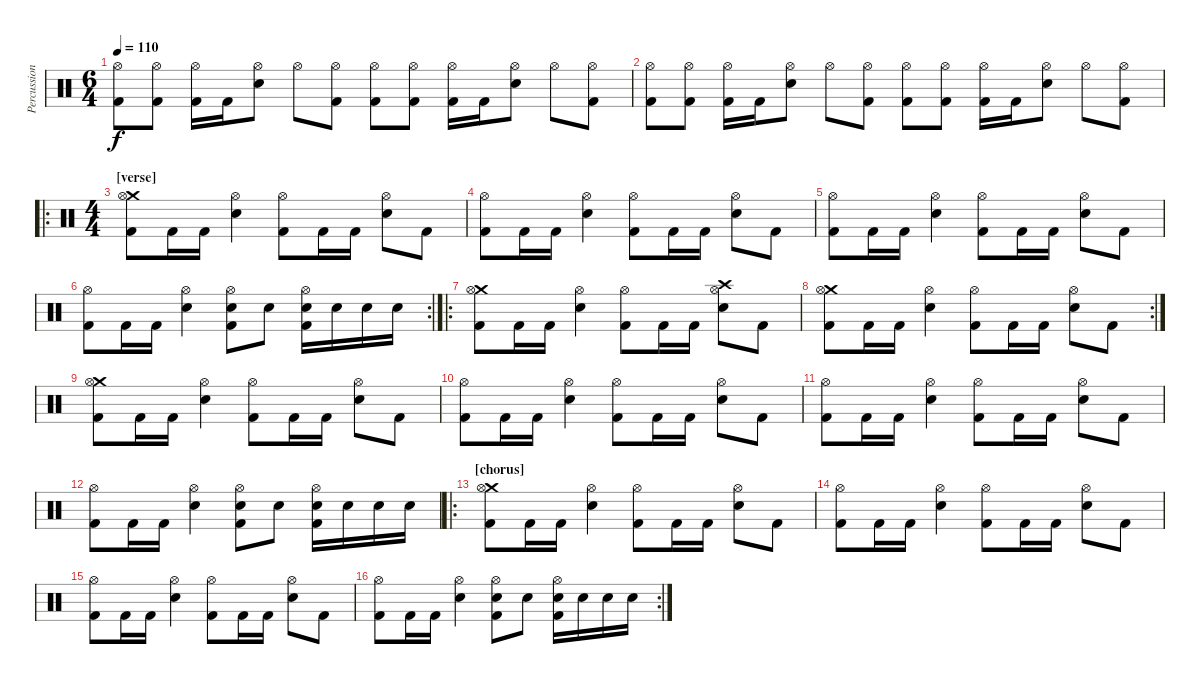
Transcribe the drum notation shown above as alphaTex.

\track ("Percussion" "Percussion") {instrument percussion}
\staff {score}
\articulation defaults
\ts (6 4)
\tempo 110
\clef neutral
\ks c
("Hi-Hat (open)" "Kick (hit) 2").8{dy f} ("Hi-Hat (open)" "Kick (hit) 2").8 ("Hi-Hat (open)" "Kick (hit) 2").16 "Kick (hit) 2".16 ("Hi-Hat (open)" "Electric Snare (hit)").8 "Hi-Hat (open)".8 ("Hi-Hat (open)" "Kick (hit) 2").8 ("Hi-Hat (open)" "Kick (hit) 2").8 ("Hi-Hat (open)" "Kick (hit) 2").8 ("Hi-Hat (open)" "Kick (hit) 2").16 "Kick (hit) 2".16 ("Hi-Hat (open)" "Electric Snare (hit)").8 "Hi-Hat (open)".8 ("Hi-Hat (open)" "Kick (hit) 2").8 |
("Hi-Hat (open)" "Kick (hit) 2").8 ("Hi-Hat (open)" "Kick (hit) 2").8 ("Hi-Hat (open)" "Kick (hit) 2").16 "Kick (hit) 2".16 ("Hi-Hat (open)" "Electric Snare (hit)").8 "Hi-Hat (open)".8 ("Hi-Hat (open)" "Kick (hit) 2").8 ("Hi-Hat (open)" "Kick (hit) 2").8 ("Hi-Hat (open)" "Kick (hit) 2").8 ("Hi-Hat (open)" "Kick (hit) 2").16 "Kick (hit) 2".16 ("Hi-Hat (open)" "Electric Snare (hit)").8 "Hi-Hat (open)".8 ("Hi-Hat (open)" "Kick (hit) 2").8 |
\ro
\ts (4 4)
\section ("" "[verse]")
("Crash medium (hit)" "Hi-Hat (open)" "Kick (hit) 2").8 "Kick (hit) 2".16 "Kick (hit) 2".16 ("Hi-Hat (open)" "Electric Snare (hit)").4 ("Hi-Hat (open)" "Kick (hit) 2").8 "Kick (hit) 2".16 "Kick (hit) 2".16 ("Hi-Hat (open)" "Electric Snare (hit)").8 "Kick (hit) 2".8 |
("Hi-Hat (open)" "Kick (hit) 2").8 "Kick (hit) 2".16 "Kick (hit) 2".16 ("Hi-Hat (open)" "Electric Snare (hit)").4 ("Hi-Hat (open)" "Kick (hit) 2").8 "Kick (hit) 2".16 "Kick (hit) 2".16 ("Hi-Hat (open)" "Electric Snare (hit)").8 "Kick (hit) 2".8 |
("Hi-Hat (open)" "Kick (hit) 2").8 "Kick (hit) 2".16 "Kick (hit) 2".16 ("Hi-Hat (open)" "Electric Snare (hit)").4 ("Hi-Hat (open)" "Kick (hit) 2").8 "Kick (hit) 2".16 "Kick (hit) 2".16 ("Hi-Hat (open)" "Electric Snare (hit)").8 "Kick (hit) 2".8 |
\rc 2
("Hi-Hat (open)" "Kick (hit) 2").8 "Kick (hit) 2".16 "Kick (hit) 2".16 ("Hi-Hat (open)" "Electric Snare (hit)").4 ("Hi-Hat (open)" "Electric Snare (hit)" "Kick (hit) 2").8 "Electric Snare (hit)".8 ("Hi-Hat (open)" "Electric Snare (hit)" "Kick (hit) 2").16 "Electric Snare (hit)".16 "Electric Snare (hit)".16 "Electric Snare (hit)".16 |
\ro
("Crash medium (hit)" "Hi-Hat (open)" "Kick (hit) 2").8 "Kick (hit) 2".16 "Kick (hit) 2".16 ("Hi-Hat (open)" "Electric Snare (hit)").4 ("Hi-Hat (open)" "Kick (hit) 2").8 "Kick (hit) 2".16 "Kick (hit) 2".16 ("Crash high (hit)" "Hi-Hat (open)" "Electric Snare (hit)").8 "Kick (hit) 2".8 |
\rc 2
("Crash medium (hit)" "Hi-Hat (open)" "Kick (hit) 2").8 "Kick (hit) 2".16 "Kick (hit) 2".16 ("Hi-Hat (open)" "Electric Snare (hit)").4 ("Hi-Hat (open)" "Kick (hit) 2").8 "Kick (hit) 2".16 "Kick (hit) 2".16 ("Hi-Hat (open)" "Electric Snare (hit)").8 "Kick (hit) 2".8 |
("Crash medium (hit)" "Hi-Hat (open)" "Kick (hit) 2").8 "Kick (hit) 2".16 "Kick (hit) 2".16 ("Hi-Hat (open)" "Electric Snare (hit)").4 ("Hi-Hat (open)" "Kick (hit) 2").8 "Kick (hit) 2".16 "Kick (hit) 2".16 ("Hi-Hat (open)" "Electric Snare (hit)").8 "Kick (hit) 2".8 |
("Hi-Hat (open)" "Kick (hit) 2").8 "Kick (hit) 2".16 "Kick (hit) 2".16 ("Hi-Hat (open)" "Electric Snare (hit)").4 ("Hi-Hat (open)" "Kick (hit) 2").8 "Kick (hit) 2".16 "Kick (hit) 2".16 ("Hi-Hat (open)" "Electric Snare (hit)").8 "Kick (hit) 2".8 |
("Hi-Hat (open)" "Kick (hit) 2").8 "Kick (hit) 2".16 "Kick (hit) 2".16 ("Hi-Hat (open)" "Electric Snare (hit)").4 ("Hi-Hat (open)" "Kick (hit) 2").8 "Kick (hit) 2".16 "Kick (hit) 2".16 ("Hi-Hat (open)" "Electric Snare (hit)").8 "Kick (hit) 2".8 |
("Hi-Hat (open)" "Kick (hit) 2").8 "Kick (hit) 2".16 "Kick (hit) 2".16 ("Hi-Hat (open)" "Electric Snare (hit)").4 ("Hi-Hat (open)" "Electric Snare (hit)" "Kick (hit) 2").8 "Electric Snare (hit)".8 ("Hi-Hat (open)" "Electric Snare (hit)" "Kick (hit) 2").16 "Electric Snare (hit)".16 "Electric Snare (hit)".16 "Electric Snare (hit)".16 |
\ro
\section ("" "[chorus]")
("Crash medium (hit)" "Hi-Hat (open)" "Kick (hit) 2").8 "Kick (hit) 2".16 "Kick (hit) 2".16 ("Hi-Hat (open)" "Electric Snare (hit)").4 ("Hi-Hat (open)" "Kick (hit) 2").8 "Kick (hit) 2".16 "Kick (hit) 2".16 ("Hi-Hat (open)" "Electric Snare (hit)").8 "Kick (hit) 2".8 |
("Hi-Hat (open)" "Kick (hit) 2").8 "Kick (hit) 2".16 "Kick (hit) 2".16 ("Hi-Hat (open)" "Electric Snare (hit)").4 ("Hi-Hat (open)" "Kick (hit) 2").8 "Kick (hit) 2".16 "Kick (hit) 2".16 ("Hi-Hat (open)" "Electric Snare (hit)").8 "Kick (hit) 2".8 |
("Hi-Hat (open)" "Kick (hit) 2").8 "Kick (hit) 2".16 "Kick (hit) 2".16 ("Hi-Hat (open)" "Electric Snare (hit)").4 ("Hi-Hat (open)" "Kick (hit) 2").8 "Kick (hit) 2".16 "Kick (hit) 2".16 ("Hi-Hat (open)" "Electric Snare (hit)").8 "Kick (hit) 2".8 |
\rc 2
("Hi-Hat (open)" "Kick (hit) 2").8 "Kick (hit) 2".16 "Kick (hit) 2".16 ("Hi-Hat (open)" "Electric Snare (hit)").4 ("Hi-Hat (open)" "Electric Snare (hit)" "Kick (hit) 2").8 "Electric Snare (hit)".8 ("Hi-Hat (open)" "Electric Snare (hit)" "Kick (hit) 2").16 "Electric Snare (hit)".16 "Electric Snare (hit)".16 "Electric Snare (hit)".16
